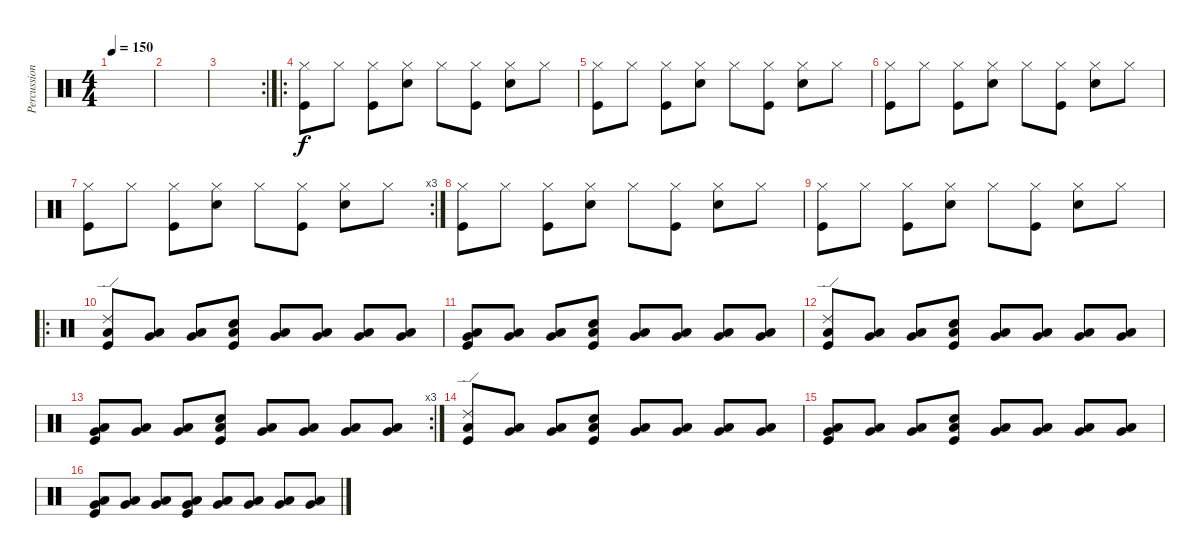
\track ("Percussions" "Percussion") {instrument percussion}
\staff {score}
\articulation defaults
\ts (4 4)
\tempo 150
\clef neutral
\ks c
|
|
\rc 2
|
\ro
("Hi-Hat (closed)" "Kick (hit)").8 "Hi-Hat (closed)".8 ("Hi-Hat (closed)" "Kick (hit)").8 ("Hi-Hat (closed)" "Electric Snare (hit)").8 "Hi-Hat (closed)".8 ("Hi-Hat (closed)" "Kick (hit)").8 ("Hi-Hat (closed)" "Electric Snare (hit)").8 "Hi-Hat (closed)".8 |
("Hi-Hat (closed)" "Kick (hit)").8 "Hi-Hat (closed)".8 ("Hi-Hat (closed)" "Kick (hit)").8 ("Hi-Hat (closed)" "Electric Snare (hit)").8 "Hi-Hat (closed)".8 ("Hi-Hat (closed)" "Kick (hit)").8 ("Hi-Hat (closed)" "Electric Snare (hit)").8 "Hi-Hat (closed)".8 |
("Hi-Hat (closed)" "Kick (hit)").8 "Hi-Hat (closed)".8 ("Hi-Hat (closed)" "Kick (hit)").8 ("Hi-Hat (closed)" "Electric Snare (hit)").8 "Hi-Hat (closed)".8 ("Hi-Hat (closed)" "Kick (hit)").8 ("Hi-Hat (closed)" "Electric Snare (hit)").8 "Hi-Hat (closed)".8 |
\rc 3
("Hi-Hat (closed)" "Kick (hit)").8 "Hi-Hat (closed)".8 ("Hi-Hat (closed)" "Kick (hit)").8 ("Hi-Hat (closed)" "Electric Snare (hit)").8 "Hi-Hat (closed)".8 ("Hi-Hat (closed)" "Kick (hit)").8 ("Hi-Hat (closed)" "Electric Snare (hit)").8 "Hi-Hat (closed)".8 |
("Hi-Hat (closed)" "Kick (hit)").8 "Hi-Hat (closed)".8 ("Hi-Hat (closed)" "Kick (hit)").8 ("Hi-Hat (closed)" "Electric Snare (hit)").8 "Hi-Hat (closed)".8 ("Hi-Hat (closed)" "Kick (hit)").8 ("Hi-Hat (closed)" "Electric Snare (hit)").8 "Hi-Hat (closed)".8 |
("Hi-Hat (closed)" "Kick (hit)").8 "Hi-Hat (closed)".8 ("Hi-Hat (closed)" "Kick (hit)").8 ("Hi-Hat (closed)" "Electric Snare (hit)").8 "Hi-Hat (closed)".8 ("Hi-Hat (closed)" "Kick (hit)").8 ("Hi-Hat (closed)" "Electric Snare (hit)").8 "Hi-Hat (closed)".8 |
\ro
("Kick (hit)" "Low Floor Tom (hit)" "Ride (edge) 2").8 ("Low Floor Tom (hit)" "Very Low Tom (hit)").8 ("Low Floor Tom (hit)" "Very Low Tom (hit)").8 ("Kick (hit)" "Low Floor Tom (hit)" "Electric Snare (hit)").8 ("Low Floor Tom (hit)" "Very Low Tom (hit)").8 ("Low Floor Tom (hit)" "Very Low Tom (hit)").8 ("Low Floor Tom (hit)" "Very Low Tom (hit)").8 ("Low Floor Tom (hit)" "Very Low Tom (hit)").8 |
("Kick (hit)" "Low Floor Tom (hit)" "Very Low Tom (hit)").8 ("Low Floor Tom (hit)" "Very Low Tom (hit)").8 ("Low Floor Tom (hit)" "Very Low Tom (hit)").8 ("Kick (hit)" "Low Floor Tom (hit)" "Electric Snare (hit)").8 ("Low Floor Tom (hit)" "Very Low Tom (hit)").8 ("Low Floor Tom (hit)" "Very Low Tom (hit)").8 ("Low Floor Tom (hit)" "Very Low Tom (hit)").8 ("Low Floor Tom (hit)" "Very Low Tom (hit)").8 |
("Kick (hit)" "Low Floor Tom (hit)" "Ride (edge) 2").8 ("Low Floor Tom (hit)" "Very Low Tom (hit)").8 ("Low Floor Tom (hit)" "Very Low Tom (hit)").8 ("Kick (hit)" "Low Floor Tom (hit)" "Electric Snare (hit)").8 ("Low Floor Tom (hit)" "Very Low Tom (hit)").8 ("Low Floor Tom (hit)" "Very Low Tom (hit)").8 ("Low Floor Tom (hit)" "Very Low Tom (hit)").8 ("Low Floor Tom (hit)" "Very Low Tom (hit)").8 |
\rc 3
("Kick (hit)" "Low Floor Tom (hit)" "Very Low Tom (hit)").8 ("Low Floor Tom (hit)" "Very Low Tom (hit)").8 ("Low Floor Tom (hit)" "Very Low Tom (hit)").8 ("Kick (hit)" "Low Floor Tom (hit)" "Electric Snare (hit)").8 ("Low Floor Tom (hit)" "Very Low Tom (hit)").8 ("Low Floor Tom (hit)" "Very Low Tom (hit)").8 ("Low Floor Tom (hit)" "Very Low Tom (hit)").8 ("Low Floor Tom (hit)" "Very Low Tom (hit)").8 |
("Kick (hit)" "Low Floor Tom (hit)" "Ride (edge) 2").8 ("Low Floor Tom (hit)" "Very Low Tom (hit)").8 ("Low Floor Tom (hit)" "Very Low Tom (hit)").8 ("Kick (hit)" "Low Floor Tom (hit)" "Electric Snare (hit)").8 ("Low Floor Tom (hit)" "Very Low Tom (hit)").8 ("Low Floor Tom (hit)" "Very Low Tom (hit)").8 ("Low Floor Tom (hit)" "Very Low Tom (hit)").8 ("Low Floor Tom (hit)" "Very Low Tom (hit)").8 |
("Kick (hit)" "Low Floor Tom (hit)" "Very Low Tom (hit)").8 ("Low Floor Tom (hit)" "Very Low Tom (hit)").8 ("Low Floor Tom (hit)" "Very Low Tom (hit)").8 ("Kick (hit)" "Low Floor Tom (hit)" "Electric Snare (hit)").8 ("Low Floor Tom (hit)" "Very Low Tom (hit)").8 ("Low Floor Tom (hit)" "Very Low Tom (hit)").8 ("Low Floor Tom (hit)" "Very Low Tom (hit)").8 ("Low Floor Tom (hit)" "Very Low Tom (hit)").8 |
("Kick (hit)" "Low Floor Tom (hit)" "Very Low Tom (hit)").8 ("Low Floor Tom (hit)" "Very Low Tom (hit)").8 ("Low Floor Tom (hit)" "Very Low Tom (hit)").8 ("Kick (hit)" "Low Floor Tom (hit)" "Very Low Tom (hit)").8 ("Low Floor Tom (hit)" "Very Low Tom (hit)").8 ("Low Floor Tom (hit)" "Very Low Tom (hit)").8 ("Low Floor Tom (hit)" "Very Low Tom (hit)").8 ("Low Floor Tom (hit)" "Very Low Tom (hit)").8
